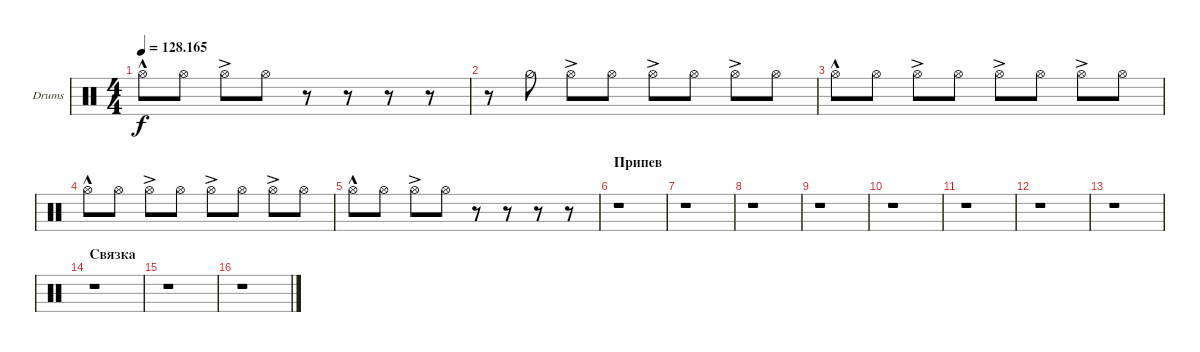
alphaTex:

\defaultSystemsLayout 4
\bracketExtendMode groupsimilarinstruments
\firstSystemTrackNameOrientation horizontal
\otherSystemsTrackNameOrientation horizontal
\track ("Drumkit" "Drums") {instrument percussion}
\staff {score}
\articulation defaults
\ts (4 4)
\tempo
128.165
\accidentals auto
\clef neutral
\ottava regular
\simile none
\ks c "Hi-Hat (open)"{hac}.8{dy f} "Hi-Hat (open)".8 "Hi-Hat (open)"{ac}.8 "Hi-Hat (open)".8
r.8 r.8 r.8 r.8 |
r.8 "Hi-Hat (half)".8 "Hi-Hat (open)"{ac}.8 "Hi-Hat (open)".8 "Hi-Hat (open)"{ac}.8 "Hi-Hat (open)".8 "Hi-Hat (open)"{ac}.8 "Hi-Hat (open)".8 |
"Hi-Hat (open)"{hac}.8 "Hi-Hat (open)".8 "Hi-Hat (open)"{ac}.8 "Hi-Hat (open)".8 "Hi-Hat (open)"{ac}.8 "Hi-Hat (open)".8 "Hi-Hat (open)"{ac}.8 "Hi-Hat (open)".8 |
"Hi-Hat (open)"{hac}.8 "Hi-Hat (open)".8 "Hi-Hat (open)"{ac}.8 "Hi-Hat (open)".8 "Hi-Hat (open)"{ac}.8 "Hi-Hat (open)".8 "Hi-Hat (open)"{ac}.8 "Hi-Hat (open)".8 |
"Hi-Hat (open)"{hac}.8 "Hi-Hat (open)".8 "Hi-Hat (open)"{ac}.8 "Hi-Hat (open)".8 r.8 r.8 r.8 r.8 |
\section ("" "Припев")
r.1 |
r.1 |
r.1 |
r.1 |
r.1 |
r.1 |
r.1 |
r.1 |
\section ("" "Связка")
r.1 |
r.1 |
r.1
